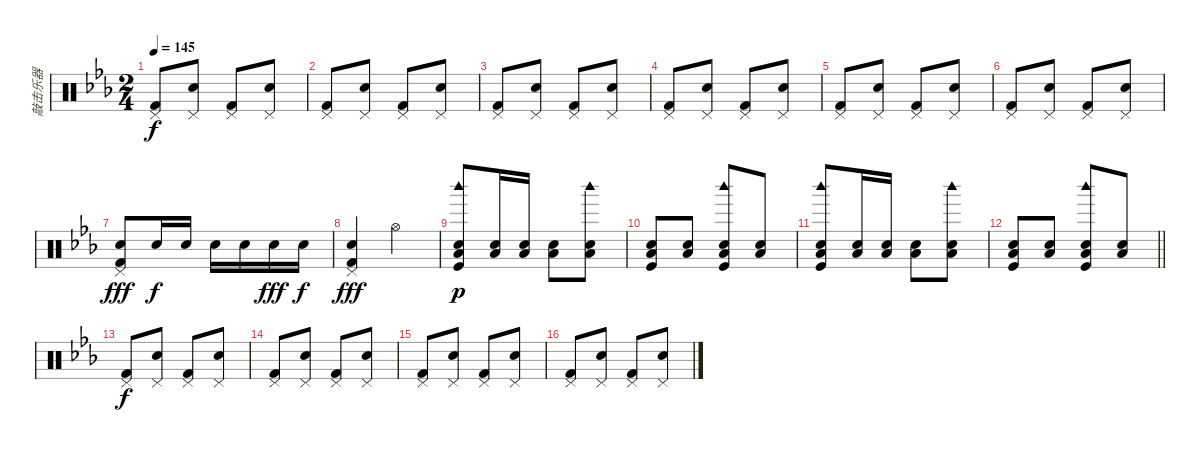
\track ("敲击乐器" "敲击乐器") {instrument percussion}
\staff {score}
\articulation defaults
\ts (2 4)
\tempo 145
\clef neutral
\ks eb
("Pedal Hi-Hat (hit)" "Kick (hit) 2").8{dy f} ("Pedal Hi-Hat (hit)" "Snare (hit) 2").8 ("Pedal Hi-Hat (hit)" "Kick (hit) 2").8 ("Pedal Hi-Hat (hit)" "Snare (hit) 2").8 |
("Pedal Hi-Hat (hit)" "Kick (hit) 2").8 ("Pedal Hi-Hat (hit)" "Snare (hit) 2").8 ("Pedal Hi-Hat (hit)" "Kick (hit) 2").8 ("Pedal Hi-Hat (hit)" "Snare (hit) 2").8 |
("Pedal Hi-Hat (hit)" "Kick (hit) 2").8 ("Pedal Hi-Hat (hit)" "Snare (hit) 2").8 ("Pedal Hi-Hat (hit)" "Kick (hit) 2").8 ("Pedal Hi-Hat (hit)" "Snare (hit) 2").8 |
("Pedal Hi-Hat (hit)" "Kick (hit) 2").8 ("Pedal Hi-Hat (hit)" "Snare (hit) 2").8 ("Pedal Hi-Hat (hit)" "Kick (hit) 2").8 ("Pedal Hi-Hat (hit)" "Snare (hit) 2").8 |
("Pedal Hi-Hat (hit)" "Kick (hit) 2").8 ("Pedal Hi-Hat (hit)" "Snare (hit) 2").8 ("Pedal Hi-Hat (hit)" "Kick (hit) 2").8 ("Pedal Hi-Hat (hit)" "Snare (hit) 2").8 |
("Pedal Hi-Hat (hit)" "Kick (hit) 2").8 ("Pedal Hi-Hat (hit)" "Snare (hit) 2").8 ("Pedal Hi-Hat (hit)" "Kick (hit) 2").8 ("Pedal Hi-Hat (hit)" "Snare (hit) 2").8 |
("Pedal Hi-Hat (hit)" "Snare (hit) 2" "Kick (hit) 2").8{dy fff} "Snare (hit) 2".16{dy f} "Snare (hit) 2".16 "Snare (hit) 2".16 "Snare (hit) 2".16 "Snare (hit) 2".16{dy fff} "Snare (hit) 2".16{dy f} |
("Pedal Hi-Hat (hit)" "Snare (hit) 2" "Kick (hit) 2").4{dy fff} "Hi-Hat (open)".4 |
("Woodblock high (hit)" "Low Tom (hit)" "Snare (hit) 2" "Kick (hit)").8{dy p volume 10} ("Low Tom (hit)" "Snare (hit) 2").16 ("Low Tom (hit)" "Snare (hit) 2").16 ("Low Tom (hit)" "Snare (hit) 2").8 ("Woodblock high (hit)" "Low Tom (hit)" "Snare (hit) 2").8 |
("Low Tom (hit)" "Snare (hit) 2" "Kick (hit)").8 ("Low Tom (hit)" "Electric Snare (hit)").8 ("Woodblock high (hit)" "Low Tom (hit)" "Snare (hit) 2" "Kick (hit)").8 ("Low Tom (hit)" "Electric Snare (hit)").8 |
("Woodblock high (hit)" "Low Tom (hit)" "Snare (hit) 2" "Kick (hit)").8 ("Low Tom (hit)" "Snare (hit) 2").16 ("Low Tom (hit)" "Snare (hit) 2").16 ("Low Tom (hit)" "Snare (hit) 2").8 ("Woodblock high (hit)" "Low Tom (hit)" "Snare (hit) 2").8 |
\barLineRight lightlight
("Low Tom (hit)" "Snare (hit) 2" "Kick (hit)").8 ("Low Tom (hit)" "Electric Snare (hit)").8 ("Woodblock high (hit)" "Low Tom (hit)" "Snare (hit) 2" "Kick (hit)").8 ("Low Tom (hit)" "Electric Snare (hit)").8 |
("Pedal Hi-Hat (hit)" "Kick (hit) 2").8{dy f volume 4} ("Pedal Hi-Hat (hit)" "Snare (hit) 2").8 ("Pedal Hi-Hat (hit)" "Kick (hit) 2").8 ("Pedal Hi-Hat (hit)" "Snare (hit) 2").8 |
("Pedal Hi-Hat (hit)" "Kick (hit) 2").8 ("Pedal Hi-Hat (hit)" "Snare (hit) 2").8 ("Pedal Hi-Hat (hit)" "Kick (hit) 2").8 ("Pedal Hi-Hat (hit)" "Snare (hit) 2").8 |
("Pedal Hi-Hat (hit)" "Kick (hit) 2").8 ("Pedal Hi-Hat (hit)" "Snare (hit) 2").8 ("Pedal Hi-Hat (hit)" "Kick (hit) 2").8 ("Pedal Hi-Hat (hit)" "Snare (hit) 2").8 |
("Pedal Hi-Hat (hit)" "Kick (hit) 2").8 ("Pedal Hi-Hat (hit)" "Snare (hit) 2").8 ("Pedal Hi-Hat (hit)" "Kick (hit) 2").8 ("Pedal Hi-Hat (hit)" "Snare (hit) 2").8
